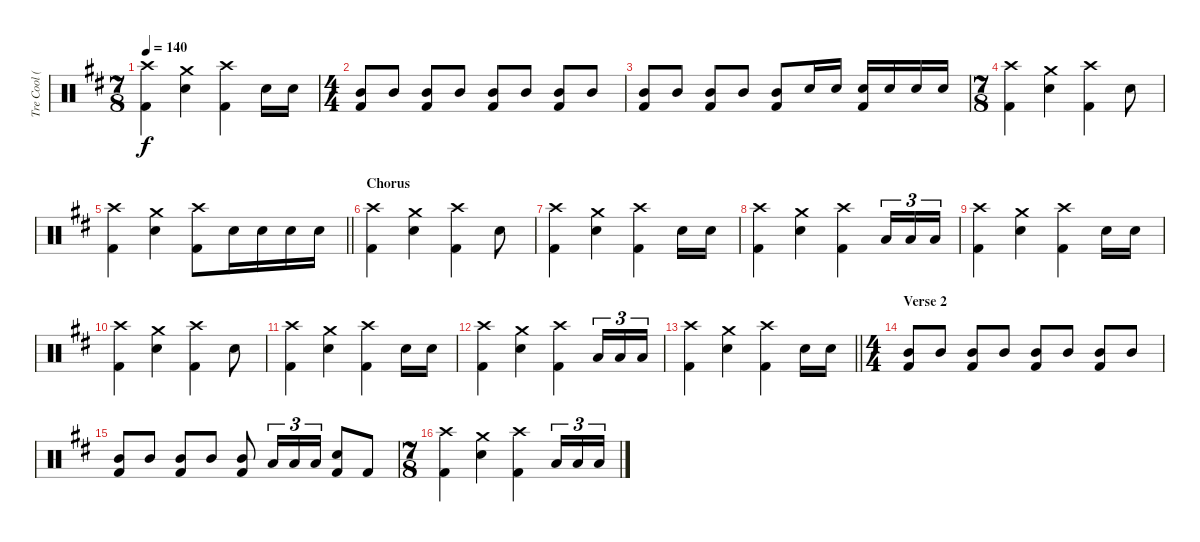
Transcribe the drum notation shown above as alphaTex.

\track ("Tre Cool (Drums)" "Tre Cool (") {instrument percussion}
\staff {score}
\articulation defaults
\ts (7 8)
\tempo 140
\clef neutral
\ks d
("Crash high (hit)" "Kick (hit) 2").4{dy f} ("Crash medium (hit)" "Electric Snare (hit)").4 ("Crash high (hit)" "Kick (hit) 2").4 "Electric Snare (hit)".16 "Electric Snare (hit)".16 |
\ts (4 4)
("Mid Tom (hit)" "Kick (hit) 2").8 "Mid Tom (hit)".8 ("Mid Tom (hit)" "Kick (hit) 2").8 "Mid Tom (hit)".8 ("Mid Tom (hit)" "Kick (hit) 2").8 "Mid Tom (hit)".8 ("Mid Tom (hit)" "Kick (hit) 2").8 "Mid Tom (hit)".8 |
("Mid Tom (hit)" "Kick (hit) 2").8 "Mid Tom (hit)".8 ("Mid Tom (hit)" "Kick (hit) 2").8 "Mid Tom (hit)".8 ("Mid Tom (hit)" "Kick (hit) 2").8 "Electric Snare (hit)".16 "Electric Snare (hit)".16 ("Electric Snare (hit)" "Kick (hit) 2").16 "Electric Snare (hit)".16 "Electric Snare (hit)".16 "Electric Snare (hit)".16 |
\ts (7 8)
("Crash high (hit)" "Kick (hit) 2").4 ("Crash medium (hit)" "Electric Snare (hit)").4 ("Crash high (hit)" "Kick (hit) 2").4 "Electric Snare (hit)".8 |
\barLineRight lightlight
("Crash high (hit)" "Kick (hit) 2").4 ("Crash medium (hit)" "Electric Snare (hit)").4 ("Crash high (hit)" "Kick (hit) 2").8 "Electric Snare (hit)".16 "Electric Snare (hit)".16 "Electric Snare (hit)".16 "Electric Snare (hit)".16 |
\section ("" "Chorus")
("Crash high (hit)" "Kick (hit) 2").4 ("Crash medium (hit)" "Electric Snare (hit)").4 ("Crash high (hit)" "Kick (hit) 2").4 "Electric Snare (hit)".8 |
("Crash high (hit)" "Kick (hit) 2").4 ("Crash medium (hit)" "Electric Snare (hit)").4 ("Crash high (hit)" "Kick (hit) 2").4 "Electric Snare (hit)".16 "Electric Snare (hit)".16 |
("Kick (hit) 2" "Crash high (hit)").4 ("Electric Snare (hit)" "Crash medium (hit)").4 ("Kick (hit) 2" "Crash high (hit)").4 "Low Tom (hit)".16{tu (3 2)} "Low Tom (hit)".16{tu (3 2)} "Low Tom (hit)".16{tu (3 2)} |
("Crash high (hit)" "Kick (hit) 2").4 ("Crash medium (hit)" "Electric Snare (hit)").4 ("Crash high (hit)" "Kick (hit) 2").4 "Electric Snare (hit)".16 "Electric Snare (hit)".16 |
("Crash high (hit)" "Kick (hit) 2").4 ("Crash medium (hit)" "Electric Snare (hit)").4 ("Crash high (hit)" "Kick (hit) 2").4 "Electric Snare (hit)".8 |
("Crash high (hit)" "Kick (hit) 2").4 ("Crash medium (hit)" "Electric Snare (hit)").4 ("Crash high (hit)" "Kick (hit) 2").4 "Electric Snare (hit)".16 "Electric Snare (hit)".16 |
("Kick (hit) 2" "Crash high (hit)").4 ("Electric Snare (hit)" "Crash medium (hit)").4 ("Kick (hit) 2" "Crash high (hit)").4 "Low Tom (hit)".16{tu (3 2)} "Low Tom (hit)".16{tu (3 2)} "Low Tom (hit)".16{tu (3 2)} |
\barLineRight lightlight
("Crash high (hit)" "Kick (hit) 2").4 ("Crash medium (hit)" "Electric Snare (hit)").4 ("Crash high (hit)" "Kick (hit) 2").4 "Electric Snare (hit)".16 "Electric Snare (hit)".16 |
\ts (4 4)
\section ("" "Verse 2")
("Mid Tom (hit)" "Kick (hit) 2").8 "Mid Tom (hit)".8 ("Mid Tom (hit)" "Kick (hit) 2").8 "Mid Tom (hit)".8 ("Mid Tom (hit)" "Kick (hit) 2").8 "Mid Tom (hit)".8 ("Mid Tom (hit)" "Kick (hit) 2").8 "Mid Tom (hit)".8 |
("Mid Tom (hit)" "Kick (hit) 2").8 "Mid Tom (hit)".8 ("Mid Tom (hit)" "Kick (hit) 2").8 "Mid Tom (hit)".8 ("Mid Tom (hit)" "Kick (hit) 2").8 "Low Tom (hit)".16{tu (3 2)} "Low Tom (hit)".16{tu (3 2)} "Low Tom (hit)".16{tu (3 2)} ("Electric Snare (hit)" "Kick (hit) 2").8 "Kick (hit) 2".8 |
\ts (7 8)
("Crash high (hit)" "Kick (hit) 2").4 ("Crash medium (hit)" "Electric Snare (hit)").4 ("Crash high (hit)" "Kick (hit) 2").4 "Low Tom (hit)".16{tu (3 2)} "Low Tom (hit)".16{tu (3 2)} "Low Tom (hit)".16{tu (3 2)}
